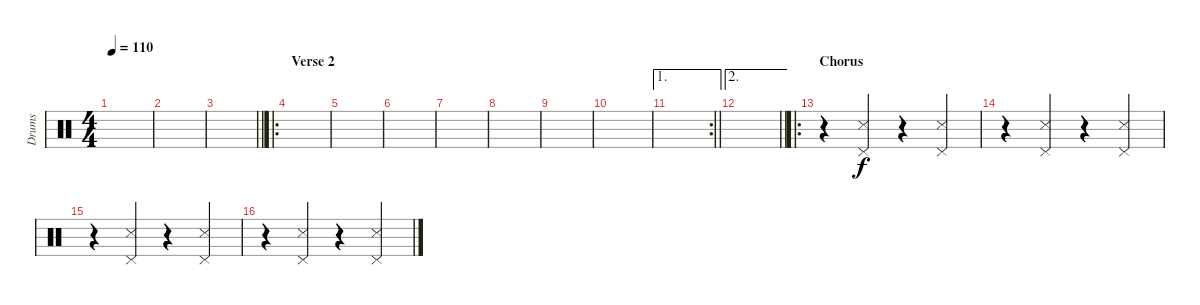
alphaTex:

\track ("Drums" "Drums") {instrument percussion}
\staff {score}
\articulation defaults
\ts (4 4)
\tempo 110
\clef neutral
\ks c
|
|
\barLineRight lightlight
|
\ro
\section ("" "Verse 2")
|
|
|
|
|
|
|
\ae 1
\rc 2
\barLineRight lightlight
|
\ae 2
\barLineRight lightlight
|
\ro
\section ("" "Chorus")
r.4 ("Pedal Hi-Hat (hit)" "Snare (side stick) 3").4 r.4 ("Pedal Hi-Hat (hit)" "Snare (side stick) 3").4 |
r.4 ("Pedal Hi-Hat (hit)" "Snare (side stick) 3").4 r.4 ("Pedal Hi-Hat (hit)" "Snare (side stick) 3").4 |
r.4 ("Pedal Hi-Hat (hit)" "Snare (side stick) 3").4 r.4 ("Pedal Hi-Hat (hit)" "Snare (side stick) 3").4 |
r.4 ("Pedal Hi-Hat (hit)" "Snare (side stick) 3").4 r.4 ("Pedal Hi-Hat (hit)" "Snare (side stick) 3").4
